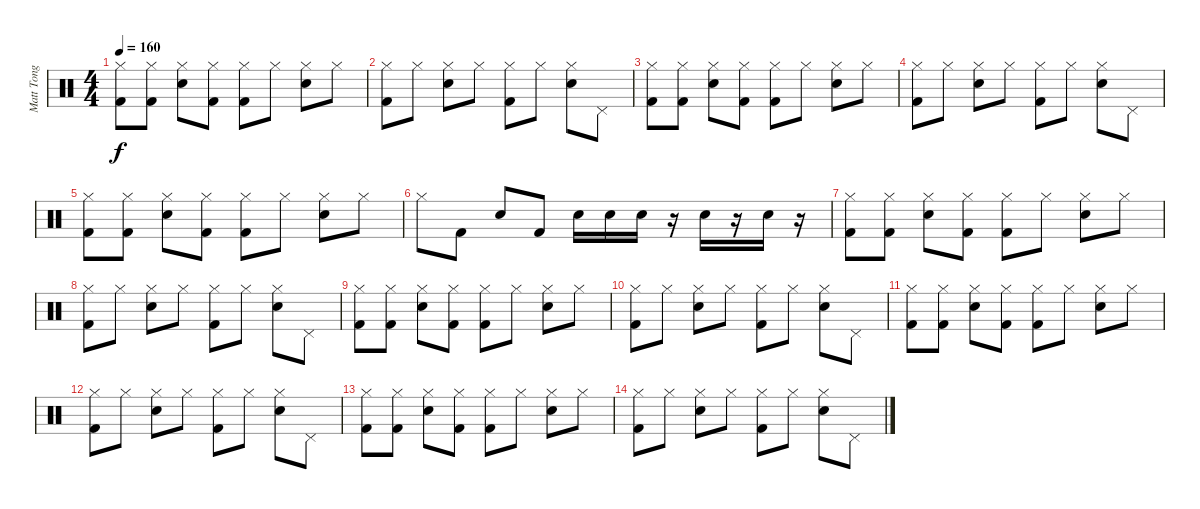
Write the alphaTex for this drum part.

\track ("Matt Tong" "Matt Tong") {instrument percussion}
\staff {score}
\articulation defaults
\ts (4 4)
\tempo 160
\clef neutral
\ks c
("Hi-Hat (closed)" "Kick (hit) 2").8{dy f} ("Hi-Hat (closed)" "Kick (hit) 2").8 ("Hi-Hat (closed)" "Snare (hit) 2").8 ("Hi-Hat (closed)" "Kick (hit) 2").8 ("Hi-Hat (closed)" "Kick (hit) 2").8 "Hi-Hat (closed)".8 ("Hi-Hat (closed)" "Snare (hit) 2").8 "Hi-Hat (closed)".8 |
("Hi-Hat (closed)" "Kick (hit) 2").8 "Hi-Hat (closed)".8 ("Hi-Hat (closed)" "Snare (hit) 2").8 "Hi-Hat (closed)".8 ("Hi-Hat (closed)" "Kick (hit) 2").8 "Hi-Hat (closed)".8 ("Hi-Hat (closed)" "Snare (hit) 2").8 "Pedal Hi-Hat (hit)".8 |
("Hi-Hat (closed)" "Kick (hit) 2").8 ("Hi-Hat (closed)" "Kick (hit) 2").8 ("Hi-Hat (closed)" "Snare (hit) 2").8 ("Hi-Hat (closed)" "Kick (hit) 2").8 ("Hi-Hat (closed)" "Kick (hit) 2").8 "Hi-Hat (closed)".8 ("Hi-Hat (closed)" "Snare (hit) 2").8 "Hi-Hat (closed)".8 |
("Hi-Hat (closed)" "Kick (hit) 2").8 "Hi-Hat (closed)".8 ("Hi-Hat (closed)" "Snare (hit) 2").8 "Hi-Hat (closed)".8 ("Hi-Hat (closed)" "Kick (hit) 2").8 "Hi-Hat (closed)".8 ("Hi-Hat (closed)" "Snare (hit) 2").8 "Pedal Hi-Hat (hit)".8 |
("Hi-Hat (closed)" "Kick (hit) 2").8 ("Hi-Hat (closed)" "Kick (hit) 2").8 ("Hi-Hat (closed)" "Snare (hit) 2").8 ("Hi-Hat (closed)" "Kick (hit) 2").8 ("Hi-Hat (closed)" "Kick (hit) 2").8 "Hi-Hat (closed)".8 ("Hi-Hat (closed)" "Snare (hit) 2").8 "Hi-Hat (closed)".8 |
"Hi-Hat (closed)".8 "Kick (hit) 2".8 "Snare (hit) 2".8 "Kick (hit) 2".8 "Snare (hit) 2".16 "Snare (hit) 2".16 "Snare (hit) 2".16 r.16 "Snare (hit) 2".16 r.16 "Snare (hit) 2".16 r.16 |
("Hi-Hat (closed)" "Kick (hit) 2").8 ("Hi-Hat (closed)" "Kick (hit) 2").8 ("Hi-Hat (closed)" "Snare (hit) 2").8 ("Hi-Hat (closed)" "Kick (hit) 2").8 ("Hi-Hat (closed)" "Kick (hit) 2").8 "Hi-Hat (closed)".8 ("Hi-Hat (closed)" "Snare (hit) 2").8 "Hi-Hat (closed)".8 |
("Hi-Hat (closed)" "Kick (hit) 2").8 "Hi-Hat (closed)".8 ("Hi-Hat (closed)" "Snare (hit) 2").8 "Hi-Hat (closed)".8 ("Hi-Hat (closed)" "Kick (hit) 2").8 "Hi-Hat (closed)".8 ("Hi-Hat (closed)" "Snare (hit) 2").8 "Pedal Hi-Hat (hit)".8 |
("Hi-Hat (closed)" "Kick (hit) 2").8 ("Hi-Hat (closed)" "Kick (hit) 2").8 ("Hi-Hat (closed)" "Snare (hit) 2").8 ("Hi-Hat (closed)" "Kick (hit) 2").8 ("Hi-Hat (closed)" "Kick (hit) 2").8 "Hi-Hat (closed)".8 ("Hi-Hat (closed)" "Snare (hit) 2").8 "Hi-Hat (closed)".8 |
("Hi-Hat (closed)" "Kick (hit) 2").8 "Hi-Hat (closed)".8 ("Hi-Hat (closed)" "Snare (hit) 2").8 "Hi-Hat (closed)".8 ("Hi-Hat (closed)" "Kick (hit) 2").8 "Hi-Hat (closed)".8 ("Hi-Hat (closed)" "Snare (hit) 2").8 "Pedal Hi-Hat (hit)".8 |
("Hi-Hat (closed)" "Kick (hit) 2").8 ("Hi-Hat (closed)" "Kick (hit) 2").8 ("Hi-Hat (closed)" "Snare (hit) 2").8 ("Hi-Hat (closed)" "Kick (hit) 2").8 ("Hi-Hat (closed)" "Kick (hit) 2").8 "Hi-Hat (closed)".8 ("Hi-Hat (closed)" "Snare (hit) 2").8 "Hi-Hat (closed)".8 |
("Hi-Hat (closed)" "Kick (hit) 2").8 "Hi-Hat (closed)".8 ("Hi-Hat (closed)" "Snare (hit) 2").8 "Hi-Hat (closed)".8 ("Hi-Hat (closed)" "Kick (hit) 2").8 "Hi-Hat (closed)".8 ("Hi-Hat (closed)" "Snare (hit) 2").8 "Pedal Hi-Hat (hit)".8 |
("Hi-Hat (closed)" "Kick (hit) 2").8 ("Hi-Hat (closed)" "Kick (hit) 2").8 ("Hi-Hat (closed)" "Snare (hit) 2").8 ("Hi-Hat (closed)" "Kick (hit) 2").8 ("Hi-Hat (closed)" "Kick (hit) 2").8 "Hi-Hat (closed)".8 ("Hi-Hat (closed)" "Snare (hit) 2").8 "Hi-Hat (closed)".8 |
("Hi-Hat (closed)" "Kick (hit) 2").8 "Hi-Hat (closed)".8 ("Hi-Hat (closed)" "Snare (hit) 2").8 "Hi-Hat (closed)".8 ("Hi-Hat (closed)" "Kick (hit) 2").8 "Hi-Hat (closed)".8 ("Hi-Hat (closed)" "Snare (hit) 2").8 "Pedal Hi-Hat (hit)".8
